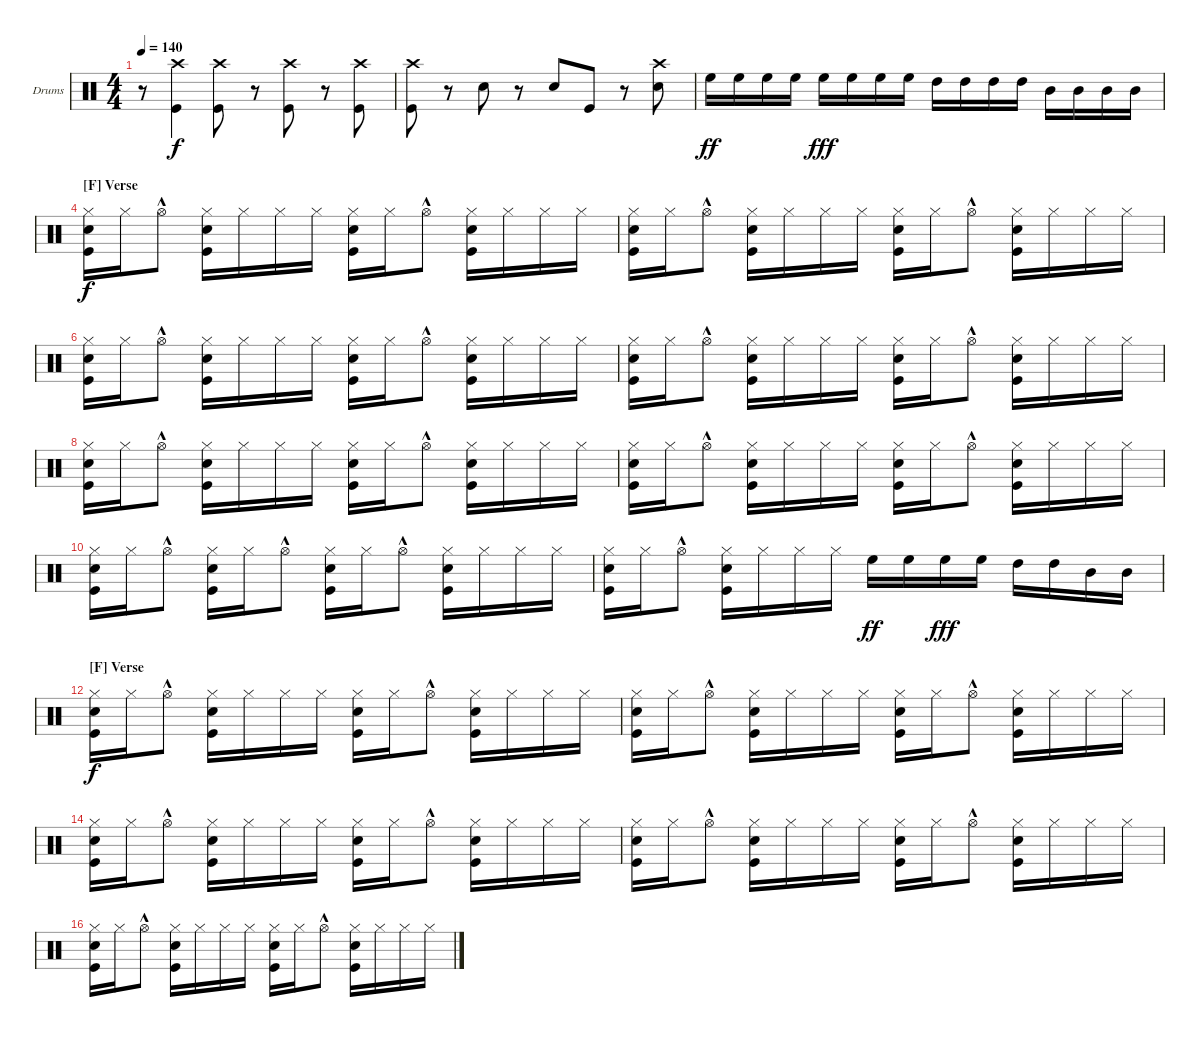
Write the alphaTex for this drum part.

\bracketExtendMode nobrackets
\firstSystemTrackNameOrientation horizontal
\otherSystemsTrackNameOrientation horizontal
\defaultBarNumberDisplay FirstOfSystem
\track ("Drumkit" "Drums") {instrument percussion}
\staff {score}
\articulation defaults
\ts (4 4)
\tempo 140
\clef neutral
\ks c
r.8{dy f} ("Crash high (hit)" "Kick (hit)").4 ("Crash high (hit)" "Kick (hit)").8 r.8 ("Kick (hit)" "Crash high (hit)").8 r.8 ("Kick (hit)" "Crash high (hit)").8 |
("Kick (hit)" "Crash high (hit)").8 r.8 "Snare (hit) 2".8 r.8 "Snare (hit) 2".8 "Kick (hit)".8 r.8 ("Crash high (hit)" "Snare (hit) 2").8 |
"High Floor Tom (hit)".16{dy ff} "High Floor Tom (hit)".16 "High Floor Tom (hit)".16 "High Floor Tom (hit)".16 "High Floor Tom (hit)".16{dy fff} "High Floor Tom (hit)".16 "High Floor Tom (hit)".16 "High Floor Tom (hit)".16 "High Tom (hit)".16 "High Tom (hit)".16 "High Tom (hit)".16 "High Tom (hit)".16 "Mid Tom (hit)".16 "Mid Tom (hit)".16 "Mid Tom (hit)".16 "Mid Tom (hit)".16 |
\section ("F" "Verse")
("Hi-Hat (closed)" "Kick (hit)" "Snare (hit) 2").16{dy f} "Hi-Hat (closed)".16 "Hi-Hat (open)"{hac}.8 ("Hi-Hat (closed)" "Kick (hit)" "Snare (hit) 2").16 "Hi-Hat (closed)".16 "Hi-Hat (closed)".16 "Hi-Hat (closed)".16 ("Hi-Hat (closed)" "Kick (hit)" "Snare (hit) 2").16 "Hi-Hat (closed)".16 "Hi-Hat (open)"{hac}.8 ("Hi-Hat (closed)" "Kick (hit)" "Snare (hit) 2").16 "Hi-Hat (closed)".16 "Hi-Hat (closed)".16 "Hi-Hat (closed)".16 |
("Hi-Hat (closed)" "Kick (hit)" "Snare (hit) 2").16 "Hi-Hat (closed)".16 "Hi-Hat (open)"{hac}.8 ("Hi-Hat (closed)" "Kick (hit)" "Snare (hit) 2").16 "Hi-Hat (closed)".16 "Hi-Hat (closed)".16 "Hi-Hat (closed)".16 ("Hi-Hat (closed)" "Kick (hit)" "Snare (hit) 2").16 "Hi-Hat (closed)".16 "Hi-Hat (open)"{hac}.8 ("Hi-Hat (closed)" "Kick (hit)" "Snare (hit) 2").16 "Hi-Hat (closed)".16 "Hi-Hat (closed)".16 "Hi-Hat (closed)".16 |
("Hi-Hat (closed)" "Kick (hit)" "Snare (hit) 2").16 "Hi-Hat (closed)".16 "Hi-Hat (open)"{hac}.8 ("Hi-Hat (closed)" "Kick (hit)" "Snare (hit) 2").16 "Hi-Hat (closed)".16 "Hi-Hat (closed)".16 "Hi-Hat (closed)".16 ("Hi-Hat (closed)" "Kick (hit)" "Snare (hit) 2").16 "Hi-Hat (closed)".16 "Hi-Hat (open)"{hac}.8 ("Hi-Hat (closed)" "Kick (hit)" "Snare (hit) 2").16 "Hi-Hat (closed)".16 "Hi-Hat (closed)".16 "Hi-Hat (closed)".16 |
("Hi-Hat (closed)" "Kick (hit)" "Snare (hit) 2").16 "Hi-Hat (closed)".16 "Hi-Hat (open)"{hac}.8 ("Hi-Hat (closed)" "Kick (hit)" "Snare (hit) 2").16 "Hi-Hat (closed)".16 "Hi-Hat (closed)".16 "Hi-Hat (closed)".16 ("Hi-Hat (closed)" "Kick (hit)" "Snare (hit) 2").16 "Hi-Hat (closed)".16 "Hi-Hat (open)"{hac}.8 ("Hi-Hat (closed)" "Kick (hit)" "Snare (hit) 2").16 "Hi-Hat (closed)".16 "Hi-Hat (closed)".16 "Hi-Hat (closed)".16 |
("Hi-Hat (closed)" "Kick (hit)" "Snare (hit) 2").16 "Hi-Hat (closed)".16 "Hi-Hat (open)"{hac}.8 ("Hi-Hat (closed)" "Kick (hit)" "Snare (hit) 2").16 "Hi-Hat (closed)".16 "Hi-Hat (closed)".16 "Hi-Hat (closed)".16 ("Hi-Hat (closed)" "Kick (hit)" "Snare (hit) 2").16 "Hi-Hat (closed)".16 "Hi-Hat (open)"{hac}.8 ("Hi-Hat (closed)" "Kick (hit)" "Snare (hit) 2").16 "Hi-Hat (closed)".16 "Hi-Hat (closed)".16 "Hi-Hat (closed)".16 |
("Hi-Hat (closed)" "Kick (hit)" "Snare (hit) 2").16 "Hi-Hat (closed)".16 "Hi-Hat (open)"{hac}.8 ("Hi-Hat (closed)" "Kick (hit)" "Snare (hit) 2").16 "Hi-Hat (closed)".16 "Hi-Hat (closed)".16 "Hi-Hat (closed)".16 ("Hi-Hat (closed)" "Kick (hit)" "Snare (hit) 2").16 "Hi-Hat (closed)".16 "Hi-Hat (open)"{hac}.8 ("Hi-Hat (closed)" "Kick (hit)" "Snare (hit) 2").16 "Hi-Hat (closed)".16 "Hi-Hat (closed)".16 "Hi-Hat (closed)".16 |
("Hi-Hat (closed)" "Kick (hit)" "Snare (hit) 2").16 "Hi-Hat (closed)".16 "Hi-Hat (open)"{hac}.8 ("Hi-Hat (closed)" "Kick (hit)" "Snare (hit) 2").16 "Hi-Hat (closed)".16 "Hi-Hat (open)"{hac}.8 ("Hi-Hat (closed)" "Kick (hit)" "Snare (hit) 2").16 "Hi-Hat (closed)".16 "Hi-Hat (open)"{hac}.8 ("Hi-Hat (closed)" "Kick (hit)" "Snare (hit) 2").16 "Hi-Hat (closed)".16 "Hi-Hat (closed)".16 "Hi-Hat (closed)".16 |
("Hi-Hat (closed)" "Kick (hit)" "Snare (hit) 2").16 "Hi-Hat (closed)".16 "Hi-Hat (open)"{hac}.8 ("Hi-Hat (closed)" "Kick (hit)" "Snare (hit) 2").16 "Hi-Hat (closed)".16 "Hi-Hat (closed)".16 "Hi-Hat (closed)".16 "High Floor Tom (hit)".16{dy ff} "High Floor Tom (hit)".16 "High Floor Tom (hit)".16{dy fff} "High Floor Tom (hit)".16 "High Tom (hit)".16 "High Tom (hit)".16 "Mid Tom (hit)".16 "Mid Tom (hit)".16 |
\section ("F" "Verse")
("Hi-Hat (closed)" "Kick (hit)" "Snare (hit) 2").16{dy f} "Hi-Hat (closed)".16 "Hi-Hat (open)"{hac}.8 ("Hi-Hat (closed)" "Kick (hit)" "Snare (hit) 2").16 "Hi-Hat (closed)".16 "Hi-Hat (closed)".16 "Hi-Hat (closed)".16 ("Hi-Hat (closed)" "Kick (hit)" "Snare (hit) 2").16 "Hi-Hat (closed)".16 "Hi-Hat (open)"{hac}.8 ("Hi-Hat (closed)" "Kick (hit)" "Snare (hit) 2").16 "Hi-Hat (closed)".16 "Hi-Hat (closed)".16 "Hi-Hat (closed)".16 |
("Hi-Hat (closed)" "Kick (hit)" "Snare (hit) 2").16 "Hi-Hat (closed)".16 "Hi-Hat (open)"{hac}.8 ("Hi-Hat (closed)" "Kick (hit)" "Snare (hit) 2").16 "Hi-Hat (closed)".16 "Hi-Hat (closed)".16 "Hi-Hat (closed)".16 ("Hi-Hat (closed)" "Kick (hit)" "Snare (hit) 2").16 "Hi-Hat (closed)".16 "Hi-Hat (open)"{hac}.8 ("Hi-Hat (closed)" "Kick (hit)" "Snare (hit) 2").16 "Hi-Hat (closed)".16 "Hi-Hat (closed)".16 "Hi-Hat (closed)".16 |
("Hi-Hat (closed)" "Kick (hit)" "Snare (hit) 2").16 "Hi-Hat (closed)".16 "Hi-Hat (open)"{hac}.8 ("Hi-Hat (closed)" "Kick (hit)" "Snare (hit) 2").16 "Hi-Hat (closed)".16 "Hi-Hat (closed)".16 "Hi-Hat (closed)".16 ("Hi-Hat (closed)" "Kick (hit)" "Snare (hit) 2").16 "Hi-Hat (closed)".16 "Hi-Hat (open)"{hac}.8 ("Hi-Hat (closed)" "Kick (hit)" "Snare (hit) 2").16 "Hi-Hat (closed)".16 "Hi-Hat (closed)".16 "Hi-Hat (closed)".16 |
("Hi-Hat (closed)" "Kick (hit)" "Snare (hit) 2").16 "Hi-Hat (closed)".16 "Hi-Hat (open)"{hac}.8 ("Hi-Hat (closed)" "Kick (hit)" "Snare (hit) 2").16 "Hi-Hat (closed)".16 "Hi-Hat (closed)".16 "Hi-Hat (closed)".16 ("Hi-Hat (closed)" "Kick (hit)" "Snare (hit) 2").16 "Hi-Hat (closed)".16 "Hi-Hat (open)"{hac}.8 ("Hi-Hat (closed)" "Kick (hit)" "Snare (hit) 2").16 "Hi-Hat (closed)".16 "Hi-Hat (closed)".16 "Hi-Hat (closed)".16 |
("Hi-Hat (closed)" "Kick (hit)" "Snare (hit) 2").16 "Hi-Hat (closed)".16 "Hi-Hat (open)"{hac}.8 ("Hi-Hat (closed)" "Kick (hit)" "Snare (hit) 2").16 "Hi-Hat (closed)".16 "Hi-Hat (closed)".16 "Hi-Hat (closed)".16 ("Hi-Hat (closed)" "Kick (hit)" "Snare (hit) 2").16 "Hi-Hat (closed)".16 "Hi-Hat (open)"{hac}.8 ("Hi-Hat (closed)" "Kick (hit)" "Snare (hit) 2").16 "Hi-Hat (closed)".16 "Hi-Hat (closed)".16 "Hi-Hat (closed)".16
